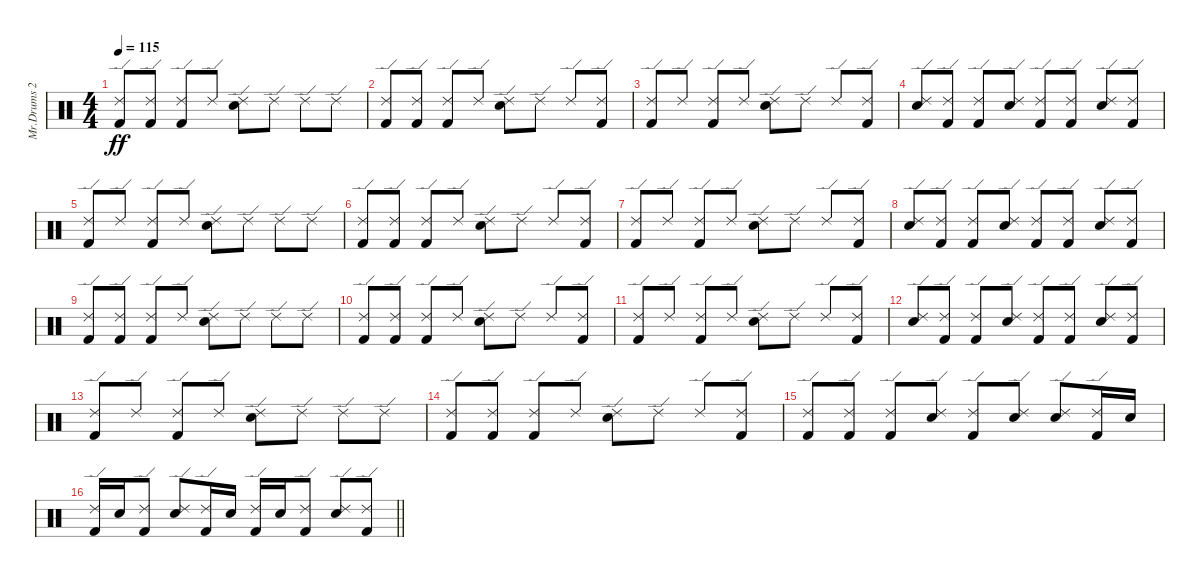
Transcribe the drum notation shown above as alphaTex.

\track ("Mr.Drums 2" "Mr.Drums 2") {instrument percussion}
\staff {score}
\articulation defaults
\ts (4 4)
\tempo 115
\clef neutral
\ks c
("Ride (edge) 2" "Kick (hit) 2").8{dy ff} ("Ride (edge) 2" "Kick (hit) 2").8 ("Ride (edge) 2" "Kick (hit) 2").8 "Ride (edge) 2".8 ("Ride (edge) 2" "Electric Snare (hit)").8 "Ride (edge) 2".8 "Ride (edge) 2".8 "Ride (edge) 2".8 |
("Ride (edge) 2" "Kick (hit) 2").8 ("Ride (edge) 2" "Kick (hit) 2").8 ("Ride (edge) 2" "Kick (hit) 2").8 "Ride (edge) 2".8 ("Ride (edge) 2" "Electric Snare (hit)").8 "Ride (edge) 2".8 "Ride (edge) 2".8 ("Ride (edge) 2" "Kick (hit) 2").8 |
("Ride (edge) 2" "Kick (hit) 2").8 "Ride (edge) 2".8 ("Ride (edge) 2" "Kick (hit) 2").8 "Ride (edge) 2".8 ("Ride (edge) 2" "Electric Snare (hit)").8 "Ride (edge) 2".8 "Ride (edge) 2".8 ("Ride (edge) 2" "Kick (hit) 2").8 |
("Ride (edge) 2" "Electric Snare (hit)").8 ("Ride (edge) 2" "Kick (hit) 2").8 ("Ride (edge) 2" "Kick (hit) 2").8 ("Ride (edge) 2" "Electric Snare (hit)").8 ("Ride (edge) 2" "Kick (hit) 2").8 ("Ride (edge) 2" "Kick (hit) 2").8 ("Ride (edge) 2" "Electric Snare (hit)").8 ("Ride (edge) 2" "Kick (hit) 2").8 |
("Ride (edge) 2" "Kick (hit) 2").8 "Ride (edge) 2".8 ("Ride (edge) 2" "Kick (hit) 2").8 "Ride (edge) 2".8 ("Ride (edge) 2" "Electric Snare (hit)").8 "Ride (edge) 2".8 "Ride (edge) 2".8 "Ride (edge) 2".8 |
("Ride (edge) 2" "Kick (hit) 2").8 ("Ride (edge) 2" "Kick (hit) 2").8 ("Ride (edge) 2" "Kick (hit) 2").8 "Ride (edge) 2".8 ("Ride (edge) 2" "Electric Snare (hit)").8 "Ride (edge) 2".8 "Ride (edge) 2".8 ("Ride (edge) 2" "Kick (hit) 2").8 |
("Ride (edge) 2" "Kick (hit) 2").8 "Ride (edge) 2".8 ("Ride (edge) 2" "Kick (hit) 2").8 "Ride (edge) 2".8 ("Ride (edge) 2" "Electric Snare (hit)").8 "Ride (edge) 2".8 "Ride (edge) 2".8 ("Ride (edge) 2" "Kick (hit) 2").8 |
("Ride (edge) 2" "Electric Snare (hit)").8 ("Ride (edge) 2" "Kick (hit) 2").8 ("Ride (edge) 2" "Kick (hit) 2").8 ("Ride (edge) 2" "Electric Snare (hit)").8 ("Ride (edge) 2" "Kick (hit) 2").8 ("Ride (edge) 2" "Kick (hit) 2").8 ("Ride (edge) 2" "Electric Snare (hit)").8 ("Ride (edge) 2" "Kick (hit) 2").8 |
("Ride (edge) 2" "Kick (hit) 2").8 ("Ride (edge) 2" "Kick (hit) 2").8 ("Ride (edge) 2" "Kick (hit) 2").8 "Ride (edge) 2".8 ("Ride (edge) 2" "Electric Snare (hit)").8 "Ride (edge) 2".8 "Ride (edge) 2".8 "Ride (edge) 2".8 |
("Ride (edge) 2" "Kick (hit) 2").8 ("Ride (edge) 2" "Kick (hit) 2").8 ("Ride (edge) 2" "Kick (hit) 2").8 "Ride (edge) 2".8 ("Ride (edge) 2" "Electric Snare (hit)").8 "Ride (edge) 2".8 "Ride (edge) 2".8 ("Ride (edge) 2" "Kick (hit) 2").8 |
("Ride (edge) 2" "Kick (hit) 2").8 "Ride (edge) 2".8 ("Ride (edge) 2" "Kick (hit) 2").8 "Ride (edge) 2".8 ("Ride (edge) 2" "Electric Snare (hit)").8 "Ride (edge) 2".8 "Ride (edge) 2".8 ("Ride (edge) 2" "Kick (hit) 2").8 |
("Ride (edge) 2" "Electric Snare (hit)").8 ("Ride (edge) 2" "Kick (hit) 2").8 ("Ride (edge) 2" "Kick (hit) 2").8 ("Ride (edge) 2" "Electric Snare (hit)").8 ("Ride (edge) 2" "Kick (hit) 2").8 ("Ride (edge) 2" "Kick (hit) 2").8 ("Ride (edge) 2" "Electric Snare (hit)").8 ("Ride (edge) 2" "Kick (hit) 2").8 |
("Ride (edge) 2" "Kick (hit) 2").8 "Ride (edge) 2".8 ("Ride (edge) 2" "Kick (hit) 2").8 "Ride (edge) 2".8 ("Ride (edge) 2" "Electric Snare (hit)").8 "Ride (edge) 2".8 "Ride (edge) 2".8 "Ride (edge) 2".8 |
("Ride (edge) 2" "Kick (hit) 2").8 ("Ride (edge) 2" "Kick (hit) 2").8 ("Ride (edge) 2" "Kick (hit) 2").8 "Ride (edge) 2".8 ("Ride (edge) 2" "Electric Snare (hit)").8 "Ride (edge) 2".8 "Ride (edge) 2".8 ("Ride (edge) 2" "Kick (hit) 2").8 |
("Ride (edge) 2" "Kick (hit) 2").8 ("Ride (edge) 2" "Kick (hit) 2").8 ("Ride (edge) 2" "Kick (hit) 2").8 ("Ride (edge) 2" "Electric Snare (hit)").8 ("Ride (edge) 2" "Kick (hit) 2").8 ("Ride (edge) 2" "Electric Snare (hit)").8 ("Ride (edge) 2" "Electric Snare (hit)").8 ("Ride (edge) 2" "Kick (hit) 2").16 "Electric Snare (hit)".16 |
\barLineRight lightlight
("Ride (edge) 2" "Kick (hit) 2").16 "Electric Snare (hit)".16 ("Ride (edge) 2" "Kick (hit) 2").8 ("Ride (edge) 2" "Electric Snare (hit)").8 ("Ride (edge) 2" "Kick (hit) 2").16 "Electric Snare (hit)".16 ("Ride (edge) 2" "Kick (hit) 2").16 "Electric Snare (hit)".16 ("Ride (edge) 2" "Kick (hit) 2").8 ("Ride (edge) 2" "Electric Snare (hit)").8 ("Ride (edge) 2" "Kick (hit) 2").8
